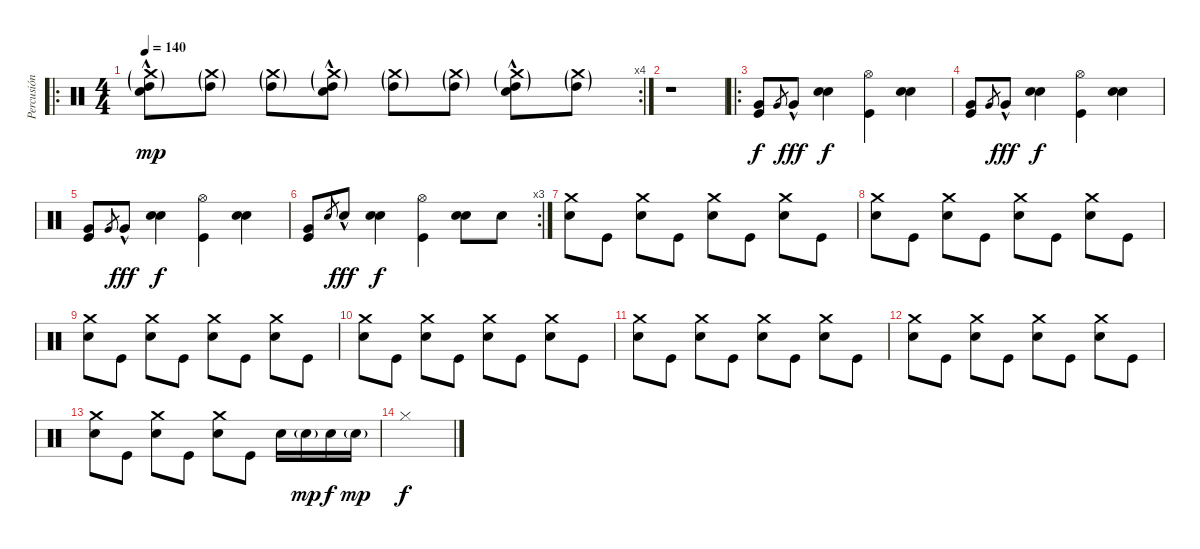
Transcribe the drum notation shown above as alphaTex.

\track ("Percusión" "Percusión") {instrument percussion}
\staff {score}
\articulation defaults
\ro
\rc 4
\ts (4 4)
\tempo 140
\clef neutral
\ks c
("Crash medium (hit)"{g} "Electric Snare (hit)"{hac} "High Tom (hit)"{g}).8{dy mp} ("Crash medium (hit)"{g} "High Tom (hit)"{g}).8 ("Crash medium (hit)"{g} "High Tom (hit)"{g}).8 ("Crash medium (hit)"{g} "Electric Snare (hit)"{hac} "High Tom (hit)"{g}).8 ("Crash medium (hit)"{g} "High Tom (hit)"{g}).8 ("Crash medium (hit)"{g} "High Tom (hit)"{g}).8 ("Crash medium (hit)"{g} "Electric Snare (hit)"{hac} "High Tom (hit)"{g}).8 ("Crash medium (hit)"{g} "High Tom (hit)"{g}).8 |
r.1 |
\ro
("Very Low Tom (hit)" "Kick (hit)").8{dy f} "Very Low Tom (hit)".8{gr} "Very Low Tom (hit)"{hac}.8{dy fff} ("Electric Snare (hit)" "Electric Snare (hit)").4{dy f} ("Hi-Hat (open)" "Kick (hit)").4 ("Electric Snare (hit)" "Electric Snare (hit)").4 |
("Very Low Tom (hit)" "Kick (hit)").8 "Very Low Tom (hit)"{h}.8{gr} "Very Low Tom (hit)"{hac}.8{dy fff} ("Electric Snare (hit)" "Electric Snare (hit)").4{dy f} ("Hi-Hat (open)" "Kick (hit)").4 ("Electric Snare (hit)" "Electric Snare (hit)").4 |
("Very Low Tom (hit)" "Kick (hit)").8 "Very Low Tom (hit)".8{gr} "Very Low Tom (hit)"{hac}.8{dy fff} ("Electric Snare (hit)" "Electric Snare (hit)").4{dy f} ("Hi-Hat (open)" "Kick (hit)").4 ("Electric Snare (hit)" "Electric Snare (hit)").4 |
\rc 3
("Very Low Tom (hit)" "Kick (hit)").8 "Electric Snare (hit)".8{gr} "Electric Snare (hit)"{hac}.8{dy fff} ("Electric Snare (hit)" "Electric Snare (hit)").4{dy f} ("Hi-Hat (open)" "Kick (hit)").4 ("Electric Snare (hit)" "Electric Snare (hit)").8 "Electric Snare (hit)".8 |
("Crash medium (hit)" "Electric Snare (hit)").8 "Kick (hit)".8 ("Crash medium (hit)" "Electric Snare (hit)").8 "Kick (hit)".8 ("Crash medium (hit)" "Electric Snare (hit)").8 "Kick (hit)".8 ("Crash medium (hit)" "Electric Snare (hit)").8 "Kick (hit)".8 |
("Crash medium (hit)" "Electric Snare (hit)").8 "Kick (hit)".8 ("Crash medium (hit)" "Electric Snare (hit)").8 "Kick (hit)".8 ("Crash medium (hit)" "Electric Snare (hit)").8 "Kick (hit)".8 ("Crash medium (hit)" "Electric Snare (hit)").8 "Kick (hit)".8 |
("Crash medium (hit)" "Electric Snare (hit)").8 "Kick (hit)".8 ("Crash medium (hit)" "Electric Snare (hit)").8 "Kick (hit)".8 ("Crash medium (hit)" "Electric Snare (hit)").8 "Kick (hit)".8 ("Crash medium (hit)" "Electric Snare (hit)").8 "Kick (hit)".8 |
("Crash medium (hit)" "Electric Snare (hit)").8 "Kick (hit)".8 ("Crash medium (hit)" "Electric Snare (hit)").8 "Kick (hit)".8 ("Crash medium (hit)" "Electric Snare (hit)").8 "Kick (hit)".8 ("Crash medium (hit)" "Electric Snare (hit)").8 "Kick (hit)".8 |
("Crash medium (hit)" "Electric Snare (hit)").8 "Kick (hit)".8 ("Crash medium (hit)" "Electric Snare (hit)").8 "Kick (hit)".8 ("Crash medium (hit)" "Electric Snare (hit)").8 "Kick (hit)".8 ("Crash medium (hit)" "Electric Snare (hit)").8 "Kick (hit)".8 |
("Crash medium (hit)" "Electric Snare (hit)").8 "Kick (hit)".8 ("Crash medium (hit)" "Electric Snare (hit)").8 "Kick (hit)".8 ("Crash medium (hit)" "Electric Snare (hit)").8 "Kick (hit)".8 ("Crash medium (hit)" "Electric Snare (hit)").8 "Kick (hit)".8 |
("Crash medium (hit)" "Electric Snare (hit)").8 "Kick (hit)".8 ("Crash medium (hit)" "Electric Snare (hit)").8 "Kick (hit)".8 ("Crash medium (hit)" "Electric Snare (hit)").8 "Kick (hit)".8 "Electric Snare (hit)".16 "Electric Snare (hit)"{g}.16{dy mp} "Electric Snare (hit)".16{dy f} "Electric Snare (hit)"{g}.16{dy mp} |
"Hi-Hat (closed)".1{dy f}
